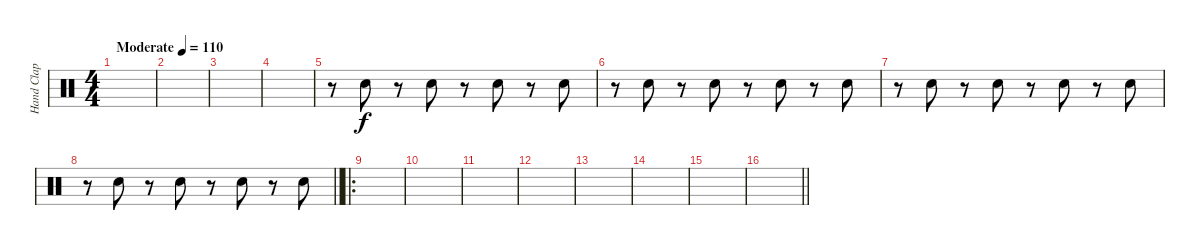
\track ("Hand Clap" "Hand Clap") {instrument percussion}
\staff {score}
\articulation defaults
\ts (4 4)
\tempo (110 "Moderate")
\clef neutral
\ks c
|
|
|
|
r.8 "Hand Clap (hit)".8 r.8 "Hand Clap (hit)".8 r.8 "Hand Clap (hit)".8 r.8 "Hand Clap (hit)".8 |
r.8 "Hand Clap (hit)".8 r.8 "Hand Clap (hit)".8 r.8 "Hand Clap (hit)".8 r.8 "Hand Clap (hit)".8 |
r.8 "Hand Clap (hit)".8 r.8 "Hand Clap (hit)".8 r.8 "Hand Clap (hit)".8 r.8 "Hand Clap (hit)".8 |
\barLineRight lightlight
r.8 "Hand Clap (hit)".8 r.8 "Hand Clap (hit)".8 r.8 "Hand Clap (hit)".8 r.8 "Hand Clap (hit)".8 |
\ro
|
|
|
|
|
|
|
\barLineRight lightlight
